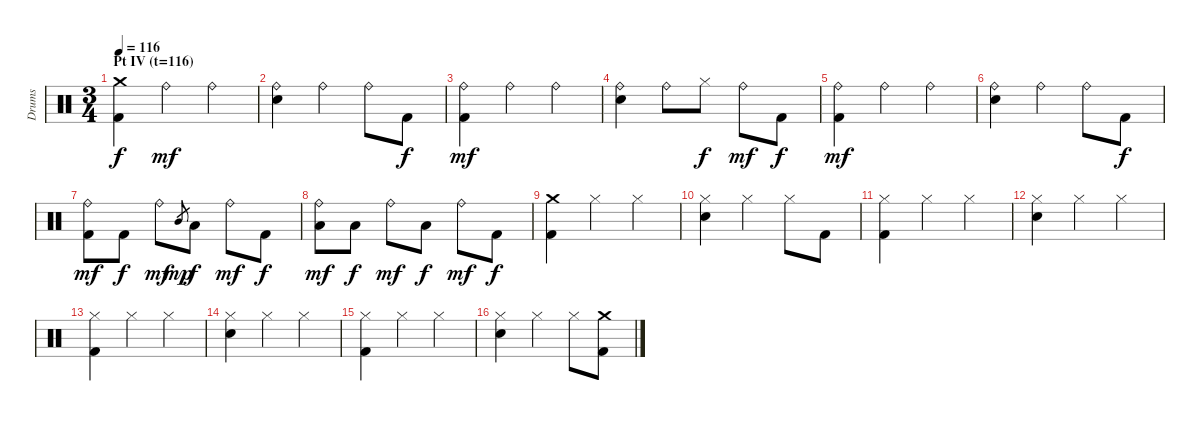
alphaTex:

\track ("Drums" "Drums") {instrument percussion}
\staff {score}
\articulation defaults
\ts (3 4)
\section ("" "Pt IV (t=116)")
\tempo 116
\clef neutral
\ks c
("Kick (hit) 2" "Crash medium (hit)").4{dy f} "Ride (bell)".4{dy mf} "Ride (bell)".4 |
("Electric Snare (hit)" "Ride (bell)").4 "Ride (bell)".4 "Ride (bell)".8 "Kick (hit) 2".8{dy f} |
("Kick (hit) 2" "Ride (bell)").4{dy mf} "Ride (bell)".4 "Ride (bell)".4 |
("Electric Snare (hit)" "Ride (bell)").4 "Ride (bell)".8 "Hi-Hat (closed)".8{dy f} "Ride (bell)".8{dy mf} "Kick (hit) 2".8{dy f} |
("Kick (hit) 2" "Ride (bell)").4{dy mf} "Ride (bell)".4 "Ride (bell)".4 |
("Electric Snare (hit)" "Ride (bell)").4 "Ride (bell)".4 "Ride (bell)".8 "Kick (hit) 2".8{dy f} |
("Kick (hit) 2" "Ride (bell)").8{dy mf} "Kick (hit) 2".8{dy f} "Ride (bell)".8{dy mf} "Mid Tom (hit)".8{gr dy mp} "Low Tom (hit)".8{dy f} "Ride (bell)".8{dy mf} "Kick (hit) 2".8{dy f} |
("Low Tom (hit)" "Ride (bell)").8{dy mf} "Low Tom (hit)".8{dy f} "Ride (bell)".8{dy mf} "Low Tom (hit)".8{dy f} "Ride (bell)".8{dy mf} "Kick (hit) 2".8{dy f} |
("Kick (hit) 2" "Crash medium (hit)").4 "Hi-Hat (closed)".4 "Hi-Hat (closed)".4 |
("Electric Snare (hit)" "Hi-Hat (closed)").4 "Hi-Hat (closed)".4 "Hi-Hat (closed)".8 "Kick (hit) 2".8 |
("Kick (hit) 2" "Hi-Hat (closed)").4 "Hi-Hat (closed)".4 "Hi-Hat (closed)".4 |
("Electric Snare (hit)" "Hi-Hat (closed)").4 "Hi-Hat (closed)".4 "Hi-Hat (closed)".4 |
("Kick (hit) 2" "Hi-Hat (closed)").4 "Hi-Hat (closed)".4 "Hi-Hat (closed)".4 |
("Electric Snare (hit)" "Hi-Hat (closed)").4 "Hi-Hat (closed)".4 "Hi-Hat (closed)".4 |
("Kick (hit) 2" "Hi-Hat (closed)").4 "Hi-Hat (closed)".4 "Hi-Hat (closed)".4 |
("Electric Snare (hit)" "Hi-Hat (closed)").4 "Hi-Hat (closed)".4 "Hi-Hat (closed)".8 ("Kick (hit) 2" "Crash medium (hit)").8
